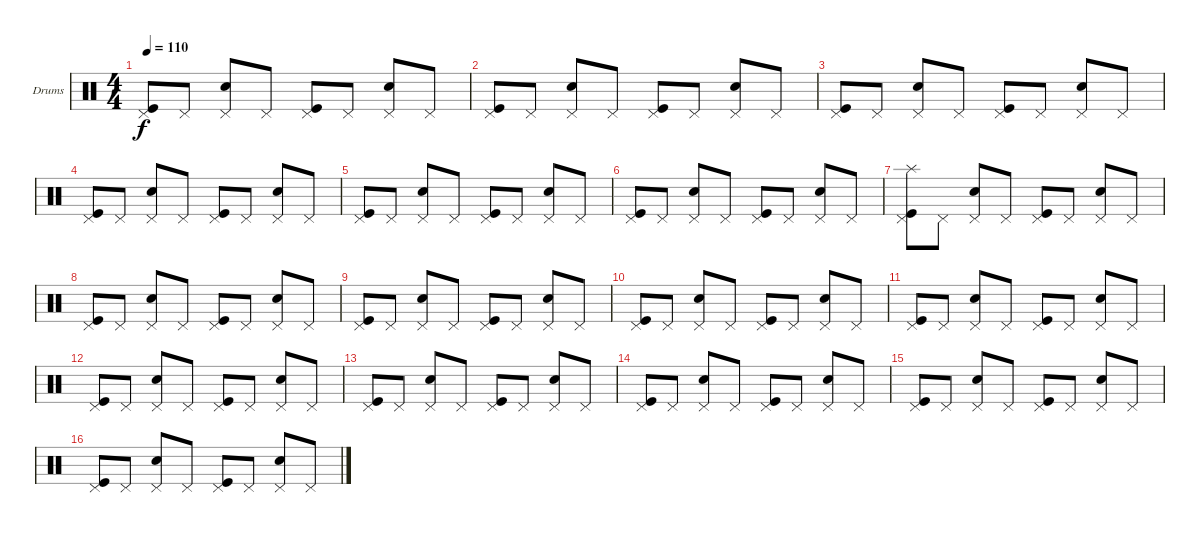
\defaultSystemsLayout 4
\bracketExtendMode groupsimilarinstruments
\firstSystemTrackNameOrientation horizontal
\otherSystemsTrackNameOrientation horizontal
\track ("Drumkit" "Drums") {instrument percussion}
\staff {score}
\articulation defaults
\ts (4 4)
\tempo 110
\clef neutral
\ks c
("Pedal Hi-Hat (hit)" "Kick (hit)").8{dy f} "Pedal Hi-Hat (hit)".8 ("Snare (hit) 2" "Pedal Hi-Hat (hit)").8 "Pedal Hi-Hat (hit)".8 ("Pedal Hi-Hat (hit)" "Kick (hit)").8 "Pedal Hi-Hat (hit)".8 ("Snare (hit) 2" "Pedal Hi-Hat (hit)").8 "Pedal Hi-Hat (hit)".8 |
("Pedal Hi-Hat (hit)" "Kick (hit)").8 "Pedal Hi-Hat (hit)".8 ("Snare (hit) 2" "Pedal Hi-Hat (hit)").8 "Pedal Hi-Hat (hit)".8 ("Pedal Hi-Hat (hit)" "Kick (hit)").8 "Pedal Hi-Hat (hit)".8 ("Snare (hit) 2" "Pedal Hi-Hat (hit)").8 "Pedal Hi-Hat (hit)".8 |
("Pedal Hi-Hat (hit)" "Kick (hit)").8 "Pedal Hi-Hat (hit)".8 ("Snare (hit) 2" "Pedal Hi-Hat (hit)").8 "Pedal Hi-Hat (hit)".8 ("Pedal Hi-Hat (hit)" "Kick (hit)").8 "Pedal Hi-Hat (hit)".8 ("Snare (hit) 2" "Pedal Hi-Hat (hit)").8 "Pedal Hi-Hat (hit)".8 |
("Pedal Hi-Hat (hit)" "Kick (hit)").8 "Pedal Hi-Hat (hit)".8 ("Snare (hit) 2" "Pedal Hi-Hat (hit)").8 "Pedal Hi-Hat (hit)".8 ("Pedal Hi-Hat (hit)" "Kick (hit)").8 "Pedal Hi-Hat (hit)".8 ("Snare (hit) 2" "Pedal Hi-Hat (hit)").8 "Pedal Hi-Hat (hit)".8 |
("Pedal Hi-Hat (hit)" "Kick (hit)").8 "Pedal Hi-Hat (hit)".8 ("Snare (hit) 2" "Pedal Hi-Hat (hit)").8 "Pedal Hi-Hat (hit)".8 ("Pedal Hi-Hat (hit)" "Kick (hit)").8 "Pedal Hi-Hat (hit)".8 ("Snare (hit) 2" "Pedal Hi-Hat (hit)").8 "Pedal Hi-Hat (hit)".8 |
("Pedal Hi-Hat (hit)" "Kick (hit)").8 "Pedal Hi-Hat (hit)".8 ("Snare (hit) 2" "Pedal Hi-Hat (hit)").8 "Pedal Hi-Hat (hit)".8 ("Pedal Hi-Hat (hit)" "Kick (hit)").8 "Pedal Hi-Hat (hit)".8 ("Snare (hit) 2" "Pedal Hi-Hat (hit)").8 "Pedal Hi-Hat (hit)".8 |
("Pedal Hi-Hat (hit)" "Kick (hit)" "Splash (hit)").8 "Pedal Hi-Hat (hit)".8 ("Snare (hit) 2" "Pedal Hi-Hat (hit)").8 "Pedal Hi-Hat (hit)".8 ("Pedal Hi-Hat (hit)" "Kick (hit)").8 "Pedal Hi-Hat (hit)".8 ("Snare (hit) 2" "Pedal Hi-Hat (hit)").8 "Pedal Hi-Hat (hit)".8 |
("Pedal Hi-Hat (hit)" "Kick (hit)").8 "Pedal Hi-Hat (hit)".8 ("Snare (hit) 2" "Pedal Hi-Hat (hit)").8 "Pedal Hi-Hat (hit)".8 ("Pedal Hi-Hat (hit)" "Kick (hit)").8 "Pedal Hi-Hat (hit)".8 ("Snare (hit) 2" "Pedal Hi-Hat (hit)").8 "Pedal Hi-Hat (hit)".8 |
("Pedal Hi-Hat (hit)" "Kick (hit)").8 "Pedal Hi-Hat (hit)".8 ("Snare (hit) 2" "Pedal Hi-Hat (hit)").8 "Pedal Hi-Hat (hit)".8 ("Pedal Hi-Hat (hit)" "Kick (hit)").8 "Pedal Hi-Hat (hit)".8 ("Snare (hit) 2" "Pedal Hi-Hat (hit)").8 "Pedal Hi-Hat (hit)".8 |
("Pedal Hi-Hat (hit)" "Kick (hit)").8 "Pedal Hi-Hat (hit)".8 ("Snare (hit) 2" "Pedal Hi-Hat (hit)").8 "Pedal Hi-Hat (hit)".8 ("Pedal Hi-Hat (hit)" "Kick (hit)").8 "Pedal Hi-Hat (hit)".8 ("Snare (hit) 2" "Pedal Hi-Hat (hit)").8 "Pedal Hi-Hat (hit)".8 |
("Pedal Hi-Hat (hit)" "Kick (hit)").8 "Pedal Hi-Hat (hit)".8 ("Snare (hit) 2" "Pedal Hi-Hat (hit)").8 "Pedal Hi-Hat (hit)".8 ("Pedal Hi-Hat (hit)" "Kick (hit)").8 "Pedal Hi-Hat (hit)".8 ("Snare (hit) 2" "Pedal Hi-Hat (hit)").8 "Pedal Hi-Hat (hit)".8 |
("Pedal Hi-Hat (hit)" "Kick (hit)").8 "Pedal Hi-Hat (hit)".8 ("Snare (hit) 2" "Pedal Hi-Hat (hit)").8 "Pedal Hi-Hat (hit)".8 ("Pedal Hi-Hat (hit)" "Kick (hit)").8 "Pedal Hi-Hat (hit)".8 ("Snare (hit) 2" "Pedal Hi-Hat (hit)").8 "Pedal Hi-Hat (hit)".8 |
("Pedal Hi-Hat (hit)" "Kick (hit)").8 "Pedal Hi-Hat (hit)".8 ("Snare (hit) 2" "Pedal Hi-Hat (hit)").8 "Pedal Hi-Hat (hit)".8 ("Pedal Hi-Hat (hit)" "Kick (hit)").8 "Pedal Hi-Hat (hit)".8 ("Snare (hit) 2" "Pedal Hi-Hat (hit)").8 "Pedal Hi-Hat (hit)".8 |
("Pedal Hi-Hat (hit)" "Kick (hit)").8 "Pedal Hi-Hat (hit)".8 ("Snare (hit) 2" "Pedal Hi-Hat (hit)").8 "Pedal Hi-Hat (hit)".8 ("Pedal Hi-Hat (hit)" "Kick (hit)").8 "Pedal Hi-Hat (hit)".8 ("Snare (hit) 2" "Pedal Hi-Hat (hit)").8 "Pedal Hi-Hat (hit)".8 |
("Pedal Hi-Hat (hit)" "Kick (hit)").8 "Pedal Hi-Hat (hit)".8 ("Snare (hit) 2" "Pedal Hi-Hat (hit)").8 "Pedal Hi-Hat (hit)".8 ("Pedal Hi-Hat (hit)" "Kick (hit)").8 "Pedal Hi-Hat (hit)".8 ("Snare (hit) 2" "Pedal Hi-Hat (hit)").8 "Pedal Hi-Hat (hit)".8 |
("Pedal Hi-Hat (hit)" "Kick (hit)").8 "Pedal Hi-Hat (hit)".8 ("Snare (hit) 2" "Pedal Hi-Hat (hit)").8 "Pedal Hi-Hat (hit)".8 ("Pedal Hi-Hat (hit)" "Kick (hit)").8 "Pedal Hi-Hat (hit)".8 ("Snare (hit) 2" "Pedal Hi-Hat (hit)").8 "Pedal Hi-Hat (hit)".8
